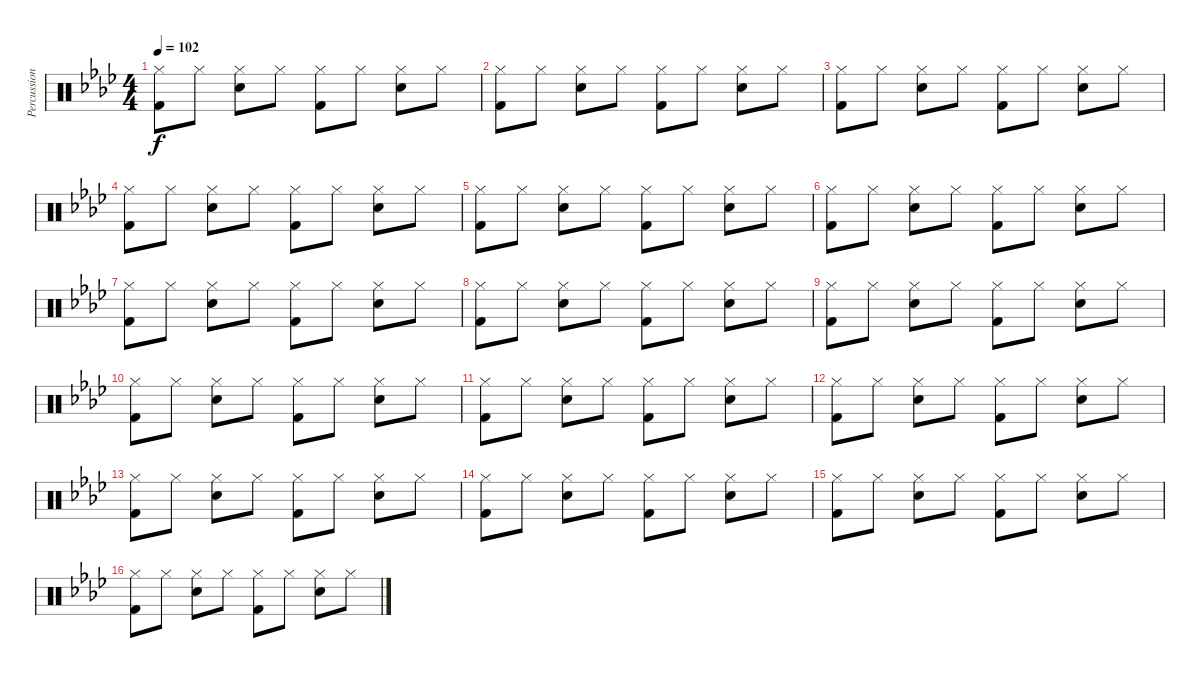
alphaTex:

\track ("Percussions" "Percussion") {instrument percussion}
\staff {score}
\articulation defaults
\ts (4 4)
\tempo 102
\clef neutral
\ks ab
("Hi-Hat (closed)" "Kick (hit) 2").8{dy f} "Hi-Hat (closed)".8 ("Hi-Hat (closed)" "Snare (hit) 2").8 "Hi-Hat (closed)".8 ("Hi-Hat (closed)" "Kick (hit) 2").8 "Hi-Hat (closed)".8 ("Hi-Hat (closed)" "Snare (hit) 2").8 "Hi-Hat (closed)".8 |
("Hi-Hat (closed)" "Kick (hit) 2").8 "Hi-Hat (closed)".8 ("Hi-Hat (closed)" "Snare (hit) 2").8 "Hi-Hat (closed)".8 ("Hi-Hat (closed)" "Kick (hit) 2").8 "Hi-Hat (closed)".8 ("Hi-Hat (closed)" "Snare (hit) 2").8 "Hi-Hat (closed)".8 |
("Hi-Hat (closed)" "Kick (hit) 2").8 "Hi-Hat (closed)".8 ("Hi-Hat (closed)" "Snare (hit) 2").8 "Hi-Hat (closed)".8 ("Hi-Hat (closed)" "Kick (hit) 2").8 "Hi-Hat (closed)".8 ("Hi-Hat (closed)" "Snare (hit) 2").8 "Hi-Hat (closed)".8 |
("Hi-Hat (closed)" "Kick (hit) 2").8 "Hi-Hat (closed)".8 ("Hi-Hat (closed)" "Snare (hit) 2").8 "Hi-Hat (closed)".8 ("Hi-Hat (closed)" "Kick (hit) 2").8 "Hi-Hat (closed)".8 ("Hi-Hat (closed)" "Snare (hit) 2").8 "Hi-Hat (closed)".8 |
("Hi-Hat (closed)" "Kick (hit) 2").8 "Hi-Hat (closed)".8 ("Hi-Hat (closed)" "Snare (hit) 2").8 "Hi-Hat (closed)".8 ("Hi-Hat (closed)" "Kick (hit) 2").8 "Hi-Hat (closed)".8 ("Hi-Hat (closed)" "Snare (hit) 2").8 "Hi-Hat (closed)".8 |
("Hi-Hat (closed)" "Kick (hit) 2").8 "Hi-Hat (closed)".8 ("Hi-Hat (closed)" "Snare (hit) 2").8 "Hi-Hat (closed)".8 ("Hi-Hat (closed)" "Kick (hit) 2").8 "Hi-Hat (closed)".8 ("Hi-Hat (closed)" "Snare (hit) 2").8 "Hi-Hat (closed)".8 |
("Hi-Hat (closed)" "Kick (hit) 2").8 "Hi-Hat (closed)".8 ("Hi-Hat (closed)" "Snare (hit) 2").8 "Hi-Hat (closed)".8 ("Hi-Hat (closed)" "Kick (hit) 2").8 "Hi-Hat (closed)".8 ("Hi-Hat (closed)" "Snare (hit) 2").8 "Hi-Hat (closed)".8 |
("Hi-Hat (closed)" "Kick (hit) 2").8 "Hi-Hat (closed)".8 ("Hi-Hat (closed)" "Snare (hit) 2").8 "Hi-Hat (closed)".8 ("Hi-Hat (closed)" "Kick (hit) 2").8 "Hi-Hat (closed)".8 ("Hi-Hat (closed)" "Snare (hit) 2").8 "Hi-Hat (closed)".8 |
("Hi-Hat (closed)" "Kick (hit) 2").8 "Hi-Hat (closed)".8 ("Hi-Hat (closed)" "Snare (hit) 2").8 "Hi-Hat (closed)".8 ("Hi-Hat (closed)" "Kick (hit) 2").8 "Hi-Hat (closed)".8 ("Hi-Hat (closed)" "Snare (hit) 2").8 "Hi-Hat (closed)".8 |
("Hi-Hat (closed)" "Kick (hit) 2").8 "Hi-Hat (closed)".8 ("Hi-Hat (closed)" "Snare (hit) 2").8 "Hi-Hat (closed)".8 ("Hi-Hat (closed)" "Kick (hit) 2").8 "Hi-Hat (closed)".8 ("Hi-Hat (closed)" "Snare (hit) 2").8 "Hi-Hat (closed)".8 |
("Hi-Hat (closed)" "Kick (hit) 2").8 "Hi-Hat (closed)".8 ("Hi-Hat (closed)" "Snare (hit) 2").8 "Hi-Hat (closed)".8 ("Hi-Hat (closed)" "Kick (hit) 2").8 "Hi-Hat (closed)".8 ("Hi-Hat (closed)" "Snare (hit) 2").8 "Hi-Hat (closed)".8 |
("Hi-Hat (closed)" "Kick (hit) 2").8 "Hi-Hat (closed)".8 ("Hi-Hat (closed)" "Snare (hit) 2").8 "Hi-Hat (closed)".8 ("Hi-Hat (closed)" "Kick (hit) 2").8 "Hi-Hat (closed)".8 ("Hi-Hat (closed)" "Snare (hit) 2").8 "Hi-Hat (closed)".8 |
("Hi-Hat (closed)" "Kick (hit) 2").8 "Hi-Hat (closed)".8 ("Hi-Hat (closed)" "Snare (hit) 2").8 "Hi-Hat (closed)".8 ("Hi-Hat (closed)" "Kick (hit) 2").8 "Hi-Hat (closed)".8 ("Hi-Hat (closed)" "Snare (hit) 2").8 "Hi-Hat (closed)".8 |
("Hi-Hat (closed)" "Kick (hit) 2").8 "Hi-Hat (closed)".8 ("Hi-Hat (closed)" "Snare (hit) 2").8 "Hi-Hat (closed)".8 ("Hi-Hat (closed)" "Kick (hit) 2").8 "Hi-Hat (closed)".8 ("Hi-Hat (closed)" "Snare (hit) 2").8 "Hi-Hat (closed)".8 |
("Hi-Hat (closed)" "Kick (hit) 2").8 "Hi-Hat (closed)".8 ("Hi-Hat (closed)" "Snare (hit) 2").8 "Hi-Hat (closed)".8 ("Hi-Hat (closed)" "Kick (hit) 2").8 "Hi-Hat (closed)".8 ("Hi-Hat (closed)" "Snare (hit) 2").8 "Hi-Hat (closed)".8 |
("Hi-Hat (closed)" "Kick (hit) 2").8 "Hi-Hat (closed)".8 ("Hi-Hat (closed)" "Snare (hit) 2").8 "Hi-Hat (closed)".8 ("Hi-Hat (closed)" "Kick (hit) 2").8 "Hi-Hat (closed)".8 ("Hi-Hat (closed)" "Snare (hit) 2").8 "Hi-Hat (closed)".8
